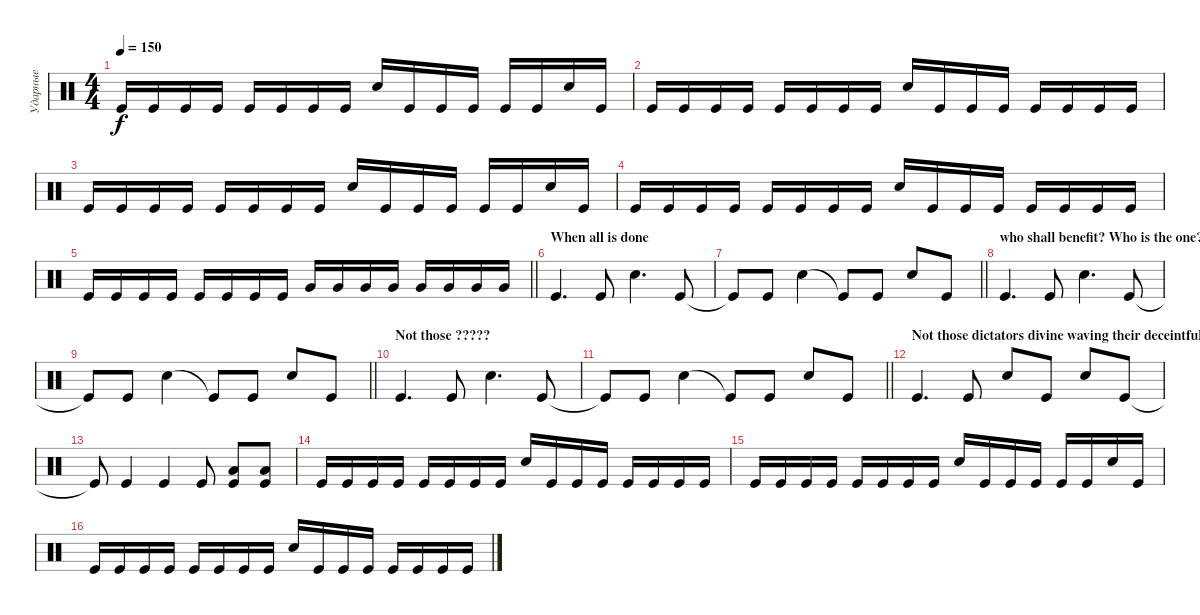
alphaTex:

\track ("Ударные" "Ударные") {instrument percussion}
\staff {score}
\articulation defaults
\ts (4 4)
\tempo 150
\clef neutral
\ks c "Kick (hit)".16{dy f} "Kick (hit)".16 "Kick (hit)".16 "Kick (hit)".16 "Kick (hit)".16 "Kick (hit)".16 "Kick (hit)".16 "Kick (hit)".16 "Snare (hit) 2".16 "Kick (hit)".16 "Kick (hit)".16 "Kick (hit)".16 "Kick (hit)".16 "Kick (hit)".16 "Snare (hit) 2".16 "Kick (hit)".16
|
"Kick (hit)".16 "Kick (hit)".16 "Kick (hit)".16 "Kick (hit)".16 "Kick (hit)".16 "Kick (hit)".16 "Kick (hit)".16 "Kick (hit)".16 "Snare (hit) 2".16 "Kick (hit)".16 "Kick (hit)".16 "Kick (hit)".16 "Kick (hit)".16 "Kick (hit)".16 "Kick (hit)".16 "Kick (hit)".16 |
"Kick (hit)".16 "Kick (hit)".16 "Kick (hit)".16 "Kick (hit)".16 "Kick (hit)".16 "Kick (hit)".16 "Kick (hit)".16 "Kick (hit)".16 "Snare (hit) 2".16 "Kick (hit)".16 "Kick (hit)".16 "Kick (hit)".16 "Kick (hit)".16 "Kick (hit)".16 "Snare (hit) 2".16 "Kick (hit)".16 |
"Kick (hit)".16 "Kick (hit)".16 "Kick (hit)".16 "Kick (hit)".16 "Kick (hit)".16 "Kick (hit)".16 "Kick (hit)".16 "Kick (hit)".16 "Snare (hit) 2".16 "Kick (hit)".16 "Kick (hit)".16 "Kick (hit)".16 "Kick (hit)".16 "Kick (hit)".16 "Kick (hit)".16 "Kick (hit)".16 |
\barLineRight lightlight "Kick (hit)".16 "Kick (hit)".16 "Kick (hit)".16 "Kick (hit)".16 "Kick (hit)".16 "Kick (hit)".16 "Kick (hit)".16 "Kick (hit)".16 "Very Low Tom (hit)".16 "Very Low Tom (hit)".16 "Very Low Tom (hit)".16 "Very Low Tom (hit)".16 "Very Low Tom (hit)".16 "Very Low Tom (hit)".16 "Very Low Tom (hit)".16 "Very Low Tom (hit)".16
|
\section ("" "When all is done")
"Kick (hit)".4{d} "Kick (hit)".8 "Snare (hit) 2".4{d} "Kick (hit)".8 |
\barLineRight lightlight "Kick (hit)"{t}.8 "Kick (hit)".8 "Snare (hit) 2".4 "Kick (hit)"{t}.8 "Kick (hit)".8 "Snare (hit) 2".8 "Kick (hit)".8
|
\section ("" "who shall benefit? Who is the one?")
"Kick (hit)".4{d} "Kick (hit)".8 "Snare (hit) 2".4{d} "Kick (hit)".8 |
\barLineRight lightlight "Kick (hit)"{t}.8 "Kick (hit)".8 "Snare (hit) 2".4 "Kick (hit)"{t}.8 "Kick (hit)".8 "Snare (hit) 2".8 "Kick (hit)".8
|
\section ("" "Not those ?????")
"Kick (hit)".4{d} "Kick (hit)".8 "Snare (hit) 2".4{d} "Kick (hit)".8 |
\barLineRight lightlight "Kick (hit)"{t}.8 "Kick (hit)".8 "Snare (hit) 2".4 "Kick (hit)"{t}.8 "Kick (hit)".8 "Snare (hit) 2".8 "Kick (hit)".8
|
\section ("" "Not those dictators divine waving their deceintful wands")
"Kick (hit)".4{d} "Kick (hit)".8 "Snare (hit) 2".8 "Kick (hit)".8 "Snare (hit) 2".8 "Kick (hit)".8 |
"Kick (hit)"{t}.8 "Kick (hit)".4 "Kick (hit)".4 "Kick (hit)".8 ("Low Floor Tom (hit)" "Kick (hit)").8 ("Low Floor Tom (hit)" "Kick (hit)").8 |
"Kick (hit)".16 "Kick (hit)".16 "Kick (hit)".16 "Kick (hit)".16 "Kick (hit)".16 "Kick (hit)".16 "Kick (hit)".16 "Kick (hit)".16 "Snare (hit) 2".16 "Kick (hit)".16 "Kick (hit)".16 "Kick (hit)".16 "Kick (hit)".16 "Kick (hit)".16 "Kick (hit)".16 "Kick (hit)".16 |
"Kick (hit)".16 "Kick (hit)".16 "Kick (hit)".16 "Kick (hit)".16 "Kick (hit)".16 "Kick (hit)".16 "Kick (hit)".16 "Kick (hit)".16 "Snare (hit) 2".16 "Kick (hit)".16 "Kick (hit)".16 "Kick (hit)".16 "Kick (hit)".16 "Kick (hit)".16 "Snare (hit) 2".16 "Kick (hit)".16 |
"Kick (hit)".16 "Kick (hit)".16 "Kick (hit)".16 "Kick (hit)".16 "Kick (hit)".16 "Kick (hit)".16 "Kick (hit)".16 "Kick (hit)".16 "Snare (hit) 2".16 "Kick (hit)".16 "Kick (hit)".16 "Kick (hit)".16 "Kick (hit)".16 "Kick (hit)".16 "Kick (hit)".16 "Kick (hit)".16
